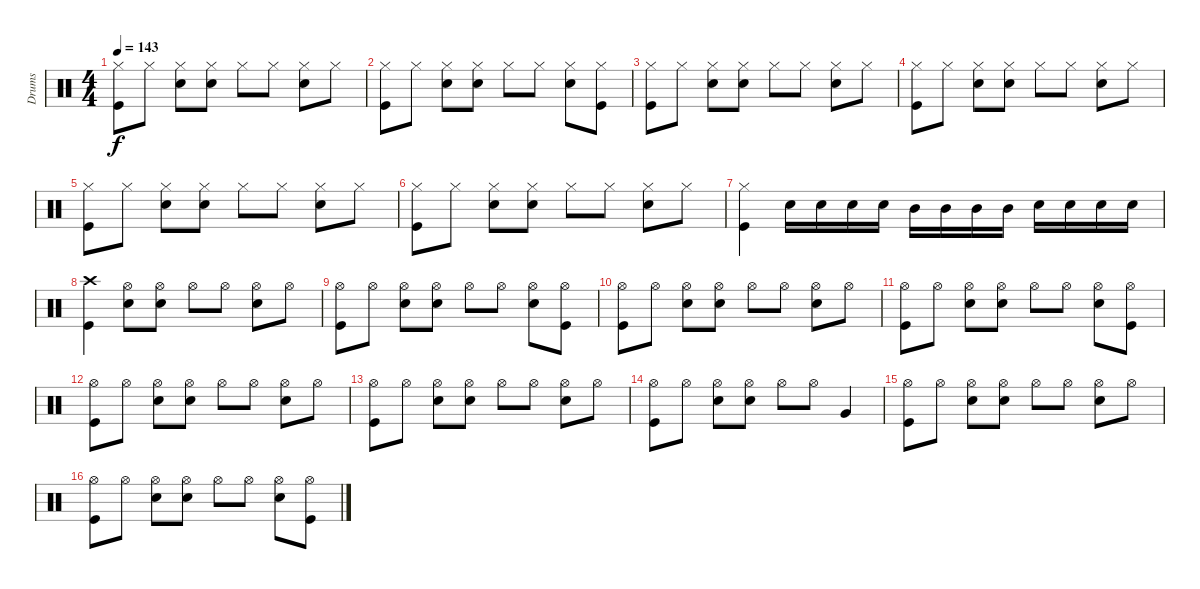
\track ("Drums" "Drums") {instrument percussion}
\staff {score}
\articulation defaults
\ts (4 4)
\tempo 143
\clef neutral
\ks c
("Hi-Hat (closed)" "Kick (hit)").8{dy f} "Hi-Hat (closed)".8 ("Hi-Hat (closed)" "Snare (hit) 2").8 ("Hi-Hat (closed)" "Snare (hit) 2").8 "Hi-Hat (closed)".8 "Hi-Hat (closed)".8 ("Hi-Hat (closed)" "Snare (hit) 2").8 "Hi-Hat (closed)".8 |
("Kick (hit)" "Hi-Hat (closed)").8 "Hi-Hat (closed)".8 ("Hi-Hat (closed)" "Snare (hit) 2").8 ("Hi-Hat (closed)" "Snare (hit) 2").8 "Hi-Hat (closed)".8 "Hi-Hat (closed)".8 ("Hi-Hat (closed)" "Snare (hit) 2").8 ("Hi-Hat (closed)" "Kick (hit)").8 |
("Kick (hit)" "Hi-Hat (closed)").8 "Hi-Hat (closed)".8 ("Hi-Hat (closed)" "Snare (hit) 2").8 ("Hi-Hat (closed)" "Snare (hit) 2").8 "Hi-Hat (closed)".8 "Hi-Hat (closed)".8 ("Hi-Hat (closed)" "Snare (hit) 2").8 "Hi-Hat (closed)".8 |
("Kick (hit)" "Hi-Hat (closed)").8 "Hi-Hat (closed)".8 ("Hi-Hat (closed)" "Snare (hit) 2").8 ("Hi-Hat (closed)" "Snare (hit) 2").8 "Hi-Hat (closed)".8 "Hi-Hat (closed)".8 ("Hi-Hat (closed)" "Snare (hit) 2").8 "Hi-Hat (closed)".8 |
("Kick (hit)" "Hi-Hat (closed)").8 "Hi-Hat (closed)".8 ("Hi-Hat (closed)" "Snare (hit) 2").8 ("Hi-Hat (closed)" "Snare (hit) 2").8 "Hi-Hat (closed)".8 "Hi-Hat (closed)".8 ("Hi-Hat (closed)" "Snare (hit) 2").8 "Hi-Hat (closed)".8 |
("Kick (hit)" "Hi-Hat (closed)").8 "Hi-Hat (closed)".8 ("Hi-Hat (closed)" "Snare (hit) 2").8 ("Hi-Hat (closed)" "Snare (hit) 2").8 "Hi-Hat (closed)".8 "Hi-Hat (closed)".8 ("Hi-Hat (closed)" "Snare (hit) 2").8 "Hi-Hat (closed)".8 |
("Hi-Hat (closed)" "Kick (hit)").4 "Snare (hit) 2".16 "Snare (hit) 2".16 "Snare (hit) 2".16 "Snare (hit) 2".16 "Mid Tom (hit)".16 "Mid Tom (hit)".16 "Mid Tom (hit)".16 "Mid Tom (hit)".16 "Snare (hit) 2".16 "Snare (hit) 2".16 "Snare (hit) 2".16 "Snare (hit) 2".16 |
("Crash high (hit)" "Kick (hit)").4 ("Hi-Hat (open)" "Snare (hit) 2").8 ("Hi-Hat (open)" "Snare (hit) 2").8 "Hi-Hat (open)".8 "Hi-Hat (open)".8 ("Hi-Hat (open)" "Snare (hit) 2").8 "Hi-Hat (open)".8 |
("Hi-Hat (open)" "Kick (hit)").8 "Hi-Hat (open)".8 ("Hi-Hat (open)" "Snare (hit) 2").8 ("Hi-Hat (open)" "Snare (hit) 2").8 "Hi-Hat (open)".8 "Hi-Hat (open)".8 ("Hi-Hat (open)" "Snare (hit) 2").8 ("Hi-Hat (open)" "Kick (hit)").8 |
("Hi-Hat (open)" "Kick (hit)").8 "Hi-Hat (open)".8 ("Hi-Hat (open)" "Snare (hit) 2").8 ("Hi-Hat (open)" "Snare (hit) 2").8 "Hi-Hat (open)".8 "Hi-Hat (open)".8 ("Hi-Hat (open)" "Snare (hit) 2").8 "Hi-Hat (open)".8 |
("Kick (hit)" "Hi-Hat (open)").8 "Hi-Hat (open)".8 ("Hi-Hat (open)" "Snare (hit) 2").8 ("Hi-Hat (open)" "Snare (hit) 2").8 "Hi-Hat (open)".8 "Hi-Hat (open)".8 ("Hi-Hat (open)" "Snare (hit) 2").8 ("Hi-Hat (open)" "Kick (hit)").8 |
("Hi-Hat (open)" "Kick (hit)").8 "Hi-Hat (open)".8 ("Hi-Hat (open)" "Snare (hit) 2").8 ("Hi-Hat (open)" "Snare (hit) 2").8 "Hi-Hat (open)".8 "Hi-Hat (open)".8 ("Hi-Hat (open)" "Snare (hit) 2").8 "Hi-Hat (open)".8 |
("Kick (hit)" "Hi-Hat (open)").8 "Hi-Hat (open)".8 ("Hi-Hat (open)" "Snare (hit) 2").8 ("Hi-Hat (open)" "Snare (hit) 2").8 "Hi-Hat (open)".8 "Hi-Hat (open)".8 ("Hi-Hat (open)" "Snare (hit) 2").8 "Hi-Hat (open)".8 |
("Kick (hit)" "Hi-Hat (open)").8 "Hi-Hat (open)".8 ("Hi-Hat (open)" "Snare (hit) 2").8 ("Hi-Hat (open)" "Snare (hit) 2").8 "Hi-Hat (open)".8 "Hi-Hat (open)".8 "Very Low Tom (hit)".4 |
("Hi-Hat (open)" "Kick (hit)").8 "Hi-Hat (open)".8 ("Hi-Hat (open)" "Snare (hit) 2").8 ("Hi-Hat (open)" "Snare (hit) 2").8 "Hi-Hat (open)".8 "Hi-Hat (open)".8 ("Hi-Hat (open)" "Snare (hit) 2").8 "Hi-Hat (open)".8 |
("Kick (hit)" "Hi-Hat (open)").8 "Hi-Hat (open)".8 ("Hi-Hat (open)" "Snare (hit) 2").8 ("Hi-Hat (open)" "Snare (hit) 2").8 "Hi-Hat (open)".8 "Hi-Hat (open)".8 ("Hi-Hat (open)" "Snare (hit) 2").8 ("Hi-Hat (open)" "Kick (hit)").8
